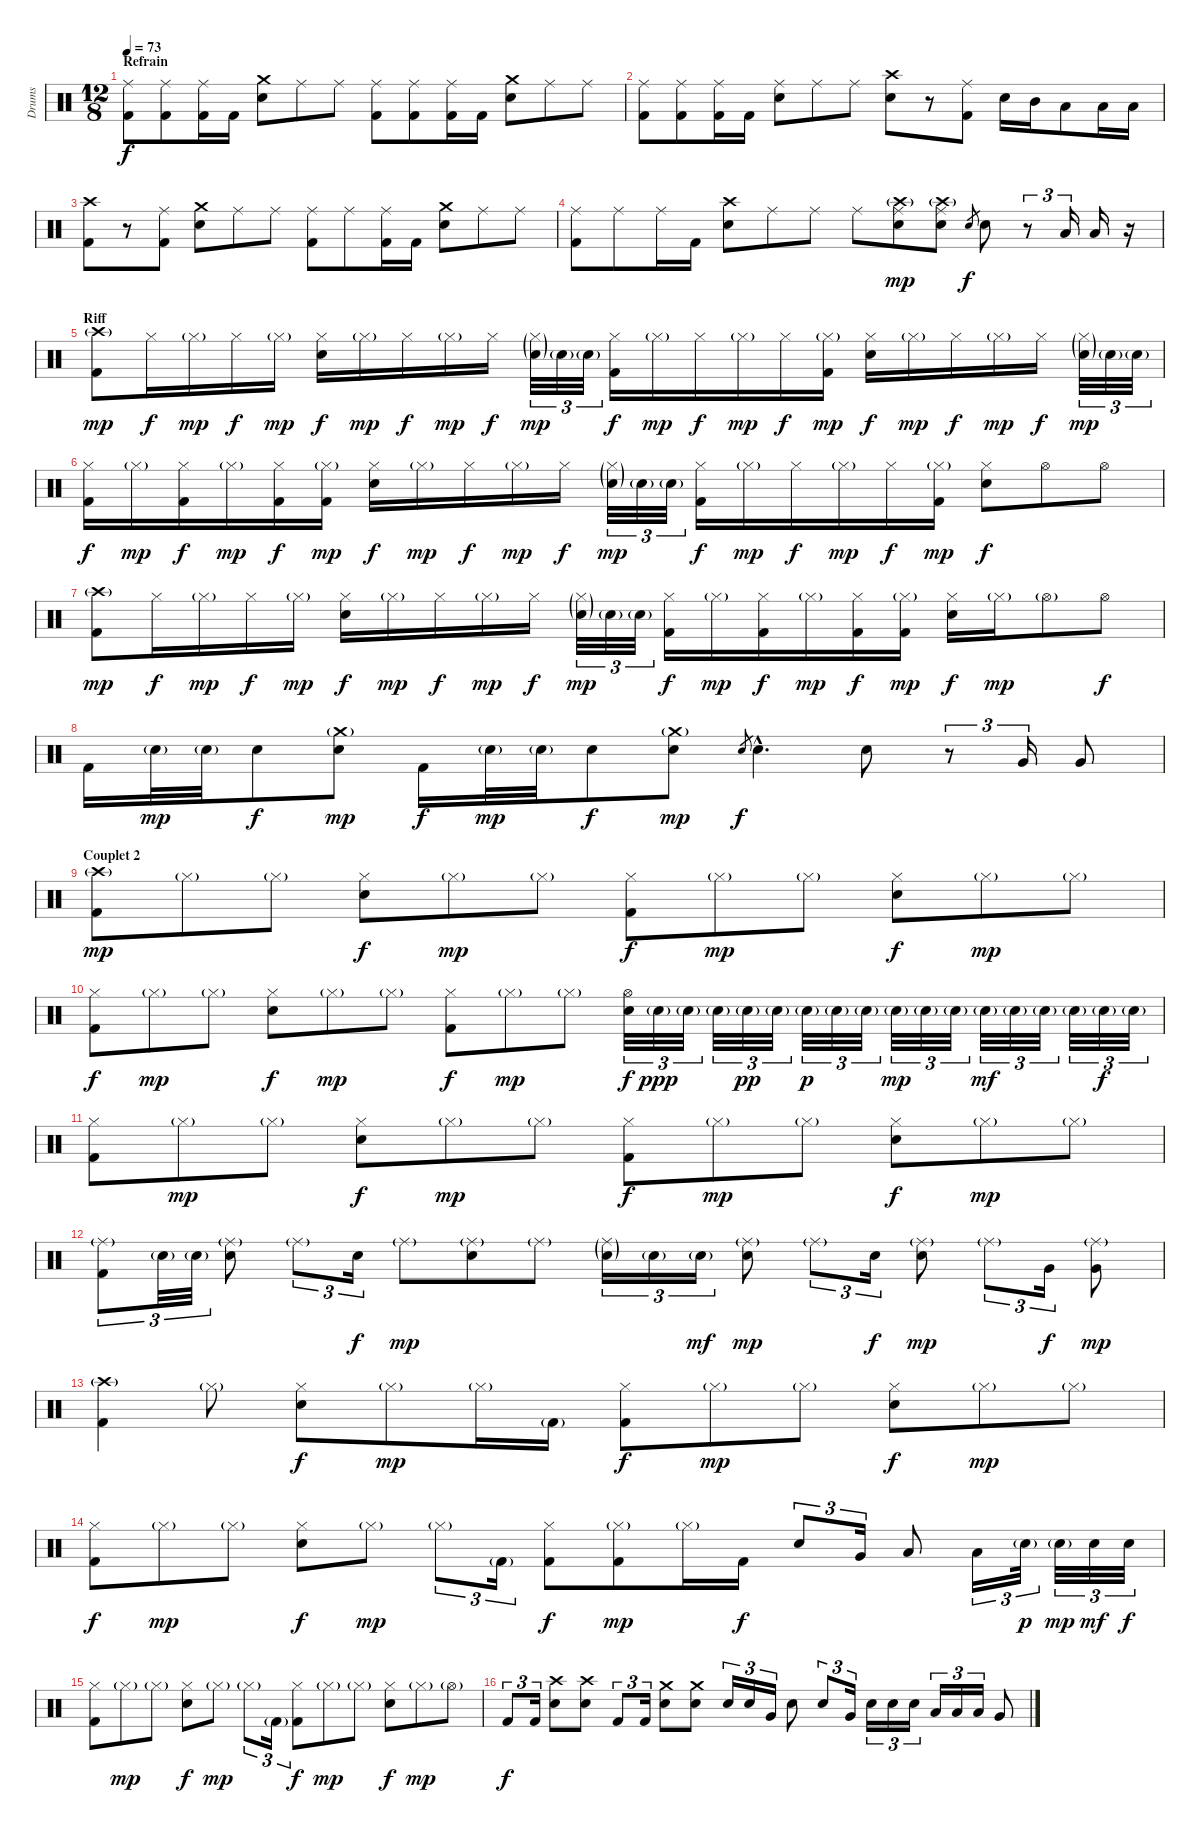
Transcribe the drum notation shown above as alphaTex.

\track ("Drums" "Drums") {instrument percussion}
\staff {score}
\articulation defaults
\ts (12 8)
\section ("" "Refrain")
\tempo 73
\clef neutral
\ks c
("Ride (middle)" "Kick (hit) 2").8{dy f} ("Ride (middle)" "Kick (hit) 2").8 ("Ride (middle)" "Kick (hit) 2").16 "Kick (hit) 2".16 ("Crash medium (hit)" "Electric Snare (hit)").8 "Ride (middle)".8 "Ride (middle)".8 ("Ride (middle)" "Kick (hit) 2").8 ("Ride (middle)" "Kick (hit) 2").8 ("Ride (middle)" "Kick (hit) 2").16 "Kick (hit) 2".16 ("Crash medium (hit)" "Electric Snare (hit)").8 "Ride (middle)".8 "Ride (middle)".8 |
("Ride (middle)" "Kick (hit) 2").8 ("Ride (middle)" "Kick (hit) 2").8 ("Ride (middle)" "Kick (hit) 2").16 "Kick (hit) 2".16 ("Electric Snare (hit)" "Ride (middle)").8 "Ride (middle)".8 "Ride (middle)".8 ("Electric Snare (hit)" "Crash high (hit)").8 r.8 ("Ride (middle)" "Kick (hit) 2").8 "Electric Snare (hit)".16 "Mid Tom (hit)".16 "Low Tom (hit)".8 "Low Tom (hit)".16 "Low Tom (hit)".16 |
("Crash high (hit)" "Kick (hit) 2").8 r.8 ("Ride (middle)" "Kick (hit) 2").8 ("Crash medium (hit)" "Electric Snare (hit)").8 "Ride (middle)".8 "Ride (middle)".8 ("Ride (middle)" "Kick (hit) 2").8 "Ride (middle)".8 ("Ride (middle)" "Kick (hit) 2").16 "Kick (hit) 2".16 ("Crash medium (hit)" "Electric Snare (hit)").8 "Ride (middle)".8 "Ride (middle)".8 |
("Ride (middle)" "Kick (hit) 2").8 "Ride (middle)".8 "Ride (middle)".16 "Kick (hit) 2".16 ("Electric Snare (hit)" "Crash high (hit)").8 "Ride (middle)".8 "Ride (middle)".8 "Ride (middle)".8 ("Electric Snare (hit)" "Crash high (hit)"{g} "Ride (middle)").8{dy mp} ("Electric Snare (hit)" "Crash high (hit)"{g} "Ride (middle)").8 "Electric Snare (hit)".8{gr dy f} "Electric Snare (hit)".8 r.8{tu (3 2)} "Low Tom (hit)".16{tu (3 2)} "Low Tom (hit)".16 r.16 |
\section ("" "Riff")
("Crash high (hit)"{g} "Kick (hit) 2").8{dy mp} "Hi-Hat (closed)".16{dy f} "Hi-Hat (closed)"{g}.16{dy mp} "Hi-Hat (closed)".16{dy f} "Hi-Hat (closed)"{g}.16{dy mp} ("Hi-Hat (closed)" "Electric Snare (hit)").16{dy f} "Hi-Hat (closed)"{g}.16{dy mp} "Hi-Hat (closed)".16{dy f} "Hi-Hat (closed)"{g}.16{dy mp} "Hi-Hat (closed)".16{dy f} ("Hi-Hat (closed)"{g} "Electric Snare (hit)"{g}).32{tu (3 2) dy mp} "Electric Snare (hit)"{g}.32{tu (3 2)} "Electric Snare (hit)"{g}.32{tu (3 2)} ("Hi-Hat (closed)" "Kick (hit) 2").16{dy f} "Hi-Hat (closed)"{g}.16{dy mp} "Hi-Hat (closed)".16{dy f} "Hi-Hat (closed)"{g}.16{dy mp} "Hi-Hat (closed)".16{dy f} ("Hi-Hat (closed)"{g} "Kick (hit) 2").16{dy mp} ("Hi-Hat (closed)" "Electric Snare (hit)").16{dy f} "Hi-Hat (closed)"{g}.16{dy mp} "Hi-Hat (closed)".16{dy f} "Hi-Hat (closed)"{g}.16{dy mp} "Hi-Hat (closed)".16{dy f} ("Hi-Hat (closed)"{g} "Electric Snare (hit)"{g}).32{tu (3 2) dy mp} "Electric Snare (hit)"{g}.32{tu (3 2)} "Electric Snare (hit)"{g}.32{tu (3 2)} |
("Hi-Hat (closed)" "Kick (hit) 2").16{dy f} "Hi-Hat (closed)"{g}.16{dy mp} ("Hi-Hat (closed)" "Kick (hit) 2").16{dy f} "Hi-Hat (closed)"{g}.16{dy mp} ("Hi-Hat (closed)" "Kick (hit) 2").16{dy f} ("Hi-Hat (closed)"{g} "Kick (hit) 2").16{dy mp} ("Hi-Hat (closed)" "Electric Snare (hit)").16{dy f} "Hi-Hat (closed)"{g}.16{dy mp} "Hi-Hat (closed)".16{dy f} "Hi-Hat (closed)"{g}.16{dy mp} "Hi-Hat (closed)".16{dy f} ("Hi-Hat (closed)"{g} "Electric Snare (hit)"{g}).32{tu (3 2) dy mp} "Electric Snare (hit)"{g}.32{tu (3 2)} "Electric Snare (hit)"{g}.32{tu (3 2)} ("Hi-Hat (closed)" "Kick (hit) 2").16{dy f} "Hi-Hat (closed)"{g}.16{dy mp} "Hi-Hat (closed)".16{dy f} "Hi-Hat (closed)"{g}.16{dy mp} "Hi-Hat (closed)".16{dy f} ("Hi-Hat (closed)"{g} "Kick (hit) 2").16{dy mp} ("Hi-Hat (closed)" "Electric Snare (hit)").8{dy f} "Hi-Hat (open)".8 "Hi-Hat (open)".8 |
("Crash high (hit)"{g} "Kick (hit) 2").8{dy mp} "Hi-Hat (closed)".16{dy f} "Hi-Hat (closed)"{g}.16{dy mp} "Hi-Hat (closed)".16{dy f} "Hi-Hat (closed)"{g}.16{dy mp} ("Hi-Hat (closed)" "Electric Snare (hit)").16{dy f} "Hi-Hat (closed)"{g}.16{dy mp} "Hi-Hat (closed)".16{dy f} "Hi-Hat (closed)"{g}.16{dy mp} "Hi-Hat (closed)".16{dy f} ("Hi-Hat (closed)"{g} "Electric Snare (hit)"{g}).32{tu (3 2) dy mp} "Electric Snare (hit)"{g}.32{tu (3 2)} "Electric Snare (hit)"{g}.32{tu (3 2)} ("Hi-Hat (closed)" "Kick (hit) 2").16{dy f} "Hi-Hat (closed)"{g}.16{dy mp} ("Hi-Hat (closed)" "Kick (hit) 2").16{dy f} "Hi-Hat (closed)"{g}.16{dy mp} ("Hi-Hat (closed)" "Kick (hit) 2").16{dy f} ("Hi-Hat (closed)"{g} "Kick (hit) 2").16{dy mp} ("Hi-Hat (closed)" "Electric Snare (hit)").16{dy f} "Hi-Hat (closed)"{g}.16{dy mp} "Hi-Hat (open)"{g}.8 "Hi-Hat (open)".8{dy f} |
"Kick (hit) 2".16 "Electric Snare (hit)"{g}.32{dy mp} "Electric Snare (hit)"{g}.32 "Electric Snare (hit)".8{dy f} ("Crash medium (hit)"{g} "Electric Snare (hit)").8{dy mp} "Kick (hit) 2".16{dy f} "Electric Snare (hit)"{g}.32{dy mp} "Electric Snare (hit)"{g}.32 "Electric Snare (hit)".8{dy f} ("Crash medium (hit)"{g} "Electric Snare (hit)").8{dy mp} "Electric Snare (hit)".8{gr dy f} "Electric Snare (hit)"{hac}.4{d} "Electric Snare (hit)".8 r.8{tu (3 2)} "Very Low Tom (hit)".16{tu (3 2)} "Very Low Tom (hit)".8 |
\section ("" "Couplet 2")
("Crash high (hit)"{g} "Kick (hit) 2").8{dy mp} "Hi-Hat (closed)"{g}.8 "Hi-Hat (closed)"{g}.8 ("Hi-Hat (closed)" "Electric Snare (hit)").8{dy f volume 7} "Hi-Hat (closed)"{g}.8{dy mp} "Hi-Hat (closed)"{g}.8 ("Hi-Hat (closed)" "Kick (hit) 2").8{dy f} "Hi-Hat (closed)"{g}.8{dy mp} "Hi-Hat (closed)"{g}.8 ("Hi-Hat (closed)" "Electric Snare (hit)").8{dy f volume 7} "Hi-Hat (closed)"{g}.8{dy mp volume 10} "Hi-Hat (closed)"{g}.8 |
("Hi-Hat (closed)" "Kick (hit) 2").8{dy f} "Hi-Hat (closed)"{g}.8{dy mp} "Hi-Hat (closed)"{g}.8 ("Hi-Hat (closed)" "Electric Snare (hit)").8{dy f volume 7} "Hi-Hat (closed)"{g}.8{dy mp volume 10} "Hi-Hat (closed)"{g}.8 ("Hi-Hat (closed)" "Kick (hit) 2").8{dy f} "Hi-Hat (closed)"{g}.8{dy mp} "Hi-Hat (closed)"{g}.8 ("Hi-Hat (open)" "Electric Snare (hit)").32{tu (3 2) dy f volume 7} "Electric Snare (hit)"{g}.32{tu (3 2) dy ppp volume 10 balance 8} "Electric Snare (hit)"{g}.32{tu (3 2)} "Electric Snare (hit)"{g}.32{tu (3 2)} "Electric Snare (hit)"{g}.32{tu (3 2) dy pp} "Electric Snare (hit)"{g}.32{tu (3 2)} "Electric Snare (hit)"{g}.32{tu (3 2) dy p} "Electric Snare (hit)"{g}.32{tu (3 2)} "Electric Snare (hit)"{g}.32{tu (3 2)} "Electric Snare (hit)"{g}.32{tu (3 2) dy mp} "Electric Snare (hit)"{g}.32{tu (3 2)} "Electric Snare (hit)"{g}.32{tu (3 2)} "Electric Snare (hit)"{g}.32{tu (3 2) dy mf} "Electric Snare (hit)"{g}.32{tu (3 2)} "Electric Snare (hit)"{g}.32{tu (3 2)} "Electric Snare (hit)"{g}.32{tu (3 2)} "Electric Snare (hit)"{g}.32{tu (3 2) dy f} "Electric Snare (hit)"{g}.32{tu (3 2)} |
("Hi-Hat (closed)" "Kick (hit) 2").8{volume 10 balance 8} "Hi-Hat (closed)"{g}.8{dy mp} "Hi-Hat (closed)"{g}.8 ("Hi-Hat (closed)" "Electric Snare (hit)").8{dy f volume 7} "Hi-Hat (closed)"{g}.8{dy mp volume 10} "Hi-Hat (closed)"{g}.8 ("Hi-Hat (closed)" "Kick (hit) 2").8{dy f} "Hi-Hat (closed)"{g}.8{dy mp} "Hi-Hat (closed)"{g}.8 ("Hi-Hat (closed)" "Electric Snare (hit)").8{dy f volume 7} "Hi-Hat (closed)"{g}.8{dy mp volume 10 balance 8} "Hi-Hat (closed)"{g}.8 |
("Ride (middle)"{g} "Kick (hit) 2").8{tu (3 2)} "Electric Snare (hit)"{g}.32{tu (3 2)} "Electric Snare (hit)"{g}.32{tu (3 2)} ("Electric Snare (hit)" "Ride (middle)"{g}).8 "Ride (middle)"{g}.8{tu (3 2)} "Electric Snare (hit)".16{tu (3 2) dy f} "Ride (middle)"{g}.8{dy mp} ("Electric Snare (hit)" "Ride (middle)"{g}).8 "Ride (middle)"{g}.8 ("Electric Snare (hit)"{g} "Ride (middle)"{g}).16{tu (3 2)} "Electric Snare (hit)"{g}.16{tu (3 2)} "Electric Snare (hit)"{g}.16{tu (3 2) dy mf} ("Electric Snare (hit)" "Ride (middle)"{g}).8{dy mp} "Ride (middle)"{g}.8{tu (3 2)} "Electric Snare (hit)".16{tu (3 2) dy f} ("Electric Snare (hit)" "Ride (middle)"{g}).8{dy mp} "Ride (middle)"{g}.8{tu (3 2)} "Very Low Tom (hit)".16{tu (3 2) dy f} ("Very Low Tom (hit)" "Ride (middle)"{g}).8{dy mp} |
("Crash high (hit)"{g} "Kick (hit) 2").4 "Hi-Hat (closed)"{g}.8 ("Hi-Hat (closed)" "Electric Snare (hit)").8{dy f volume 7} "Hi-Hat (closed)"{g}.8{dy mp volume 10} "Hi-Hat (closed)"{g}.16 "Kick (hit) 2"{g}.16 ("Hi-Hat (closed)" "Kick (hit) 2").8{dy f} "Hi-Hat (closed)"{g}.8{dy mp} "Hi-Hat (closed)"{g}.8 ("Hi-Hat (closed)" "Electric Snare (hit)").8{dy f volume 7} "Hi-Hat (closed)"{g}.8{dy mp volume 10} "Hi-Hat (closed)"{g}.8 |
("Hi-Hat (closed)" "Kick (hit) 2").8{dy f} "Hi-Hat (closed)"{g}.8{dy mp} "Hi-Hat (closed)"{g}.8 ("Hi-Hat (closed)" "Electric Snare (hit)").8{dy f volume 7} "Hi-Hat (closed)"{g}.8{dy mp volume 10} "Hi-Hat (closed)"{g}.8{tu (3 2)} "Kick (hit) 2"{g}.16{tu (3 2)} ("Hi-Hat (closed)" "Kick (hit) 2").8{dy f} ("Hi-Hat (closed)"{g} "Kick (hit) 2").8{dy mp} "Hi-Hat (closed)"{g}.16 "Kick (hit) 2".16{dy f} "Electric Snare (hit)".8{tu (3 2)} "Very Low Tom (hit)".16{tu (3 2)} "Low Floor Tom (hit)".8 "Low Floor Tom (hit)".16{tu (3 2)} "Electric Snare (hit)"{g}.32{tu (3 2) dy p} "Electric Snare (hit)"{g}.32{tu (3 2) dy mp} "Electric Snare (hit)".32{tu (3 2) dy mf} "Electric Snare (hit)".32{tu (3 2) dy f} |
("Hi-Hat (closed)" "Kick (hit) 2").8 "Hi-Hat (closed)"{g}.8{dy mp} "Hi-Hat (closed)"{g}.8 ("Hi-Hat (closed)" "Electric Snare (hit)").8{dy f volume 7} "Hi-Hat (closed)"{g}.8{dy mp volume 10} "Hi-Hat (closed)"{g}.8{tu (3 2)} "Kick (hit) 2"{g}.16{tu (3 2)} ("Hi-Hat (closed)" "Kick (hit) 2").8{dy f} "Hi-Hat (closed)"{g}.8{dy mp} "Hi-Hat (closed)"{g}.8 ("Hi-Hat (closed)" "Electric Snare (hit)").8{dy f volume 7} "Hi-Hat (closed)"{g}.8{dy mp volume 10} "Hi-Hat (open)"{g}.8 |
"Kick (hit) 2".8{tu (3 2) dy f} "Kick (hit) 2".16{tu (3 2)} ("Electric Snare (hit)" "Crash high (hit)").8 ("Electric Snare (hit)" "Crash high (hit)").8 "Kick (hit) 2".8{tu (3 2)} "Kick (hit) 2".16{tu (3 2)} ("Crash medium (hit)" "Electric Snare (hit)").8 ("Crash medium (hit)" "Electric Snare (hit)").8 "Electric Snare (hit)".16{tu (3 2)} "Electric Snare (hit)".16{tu (3 2)} "Very Low Tom (hit)".16{tu (3 2)} "Electric Snare (hit)".8 "Electric Snare (hit)".8{tu (3 2)} "Very Low Tom (hit)".16{tu (3 2)} "Electric Snare (hit)".16{tu (3 2)} "Electric Snare (hit)".16{tu (3 2)} "Electric Snare (hit)".16{tu (3 2)} "Low Tom (hit)".16{tu (3 2)} "Low Tom (hit)".16{tu (3 2)} "Low Tom (hit)".16{tu (3 2)} "Very Low Tom (hit)".8
